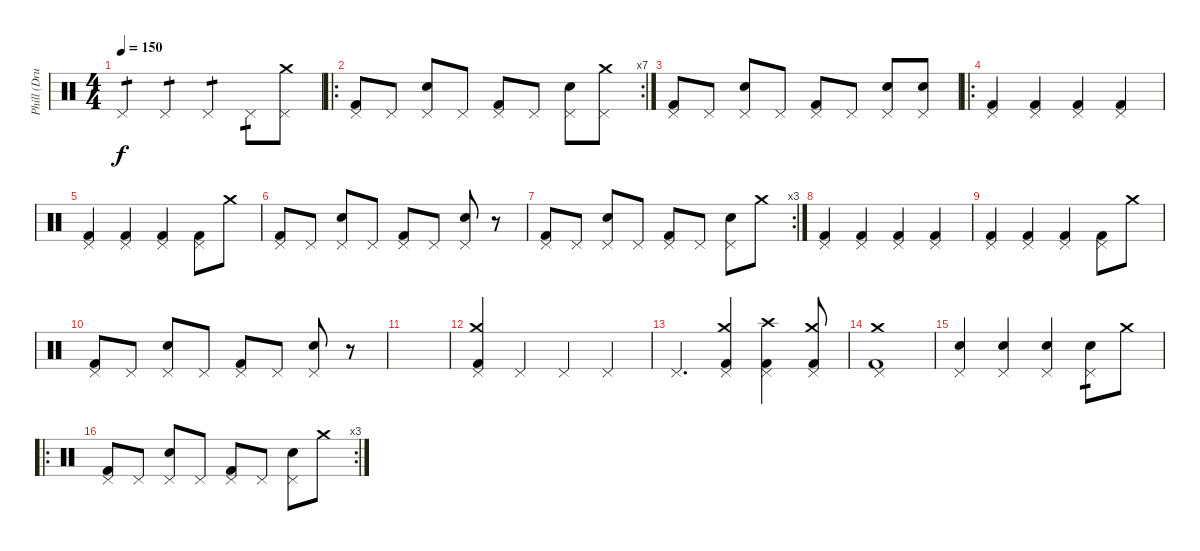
\track ("Phill (Drums)" "Phill (Dru") {instrument percussion}
\staff {score}
\articulation defaults
\ts (4 4)
\tempo 150
\clef neutral
\ks c "Pedal Hi-Hat (hit)".4{tp 1 dy f} "Pedal Hi-Hat (hit)".4{tp 1} "Pedal Hi-Hat (hit)".4{tp 1} "Pedal Hi-Hat (hit)".8{tp 1}
("Pedal Hi-Hat (hit)" "Crash medium (hit)").8 |
\ro
\rc 7
("Kick (hit) 2" "Pedal Hi-Hat (hit)").8 "Pedal Hi-Hat (hit)".8 ("Snare (hit) 2" "Pedal Hi-Hat (hit)").8 "Pedal Hi-Hat (hit)".8 ("Kick (hit) 2" "Pedal Hi-Hat (hit)").8 "Pedal Hi-Hat (hit)".8 ("Snare (hit) 2" "Pedal Hi-Hat (hit)").8 ("Pedal Hi-Hat (hit)" "Crash medium (hit)").8 |
("Kick (hit) 2" "Pedal Hi-Hat (hit)").8 "Pedal Hi-Hat (hit)".8 ("Snare (hit) 2" "Pedal Hi-Hat (hit)").8 "Pedal Hi-Hat (hit)".8 ("Kick (hit) 2" "Pedal Hi-Hat (hit)").8 "Pedal Hi-Hat (hit)".8 ("Snare (hit) 2" "Pedal Hi-Hat (hit)").8 ("Snare (hit) 2" "Pedal Hi-Hat (hit)").8 |
\ro
("Kick (hit) 2" "Pedal Hi-Hat (hit)").4 ("Kick (hit) 2" "Pedal Hi-Hat (hit)").4 ("Kick (hit) 2" "Pedal Hi-Hat (hit)").4 ("Kick (hit) 2" "Pedal Hi-Hat (hit)").4 |
("Kick (hit) 2" "Pedal Hi-Hat (hit)").4 ("Kick (hit) 2" "Pedal Hi-Hat (hit)").4 ("Kick (hit) 2" "Pedal Hi-Hat (hit)").4 ("Kick (hit) 2" "Pedal Hi-Hat (hit)").8 "Crash medium (hit)".8 |
("Kick (hit) 2" "Pedal Hi-Hat (hit)").8 "Pedal Hi-Hat (hit)".8 ("Snare (hit) 2" "Pedal Hi-Hat (hit)").8 "Pedal Hi-Hat (hit)".8 ("Kick (hit) 2" "Pedal Hi-Hat (hit)").8 "Pedal Hi-Hat (hit)".8 ("Snare (hit) 2" "Pedal Hi-Hat (hit)").8 r.8 |
\rc 3
("Kick (hit) 2" "Pedal Hi-Hat (hit)").8 "Pedal Hi-Hat (hit)".8 ("Snare (hit) 2" "Pedal Hi-Hat (hit)").8 "Pedal Hi-Hat (hit)".8 ("Kick (hit) 2" "Pedal Hi-Hat (hit)").8 "Pedal Hi-Hat (hit)".8 ("Snare (hit) 2" "Pedal Hi-Hat (hit)").8 "Crash medium (hit)".8 |
("Kick (hit) 2" "Pedal Hi-Hat (hit)").4 ("Kick (hit) 2" "Pedal Hi-Hat (hit)").4 ("Kick (hit) 2" "Pedal Hi-Hat (hit)").4 ("Kick (hit) 2" "Pedal Hi-Hat (hit)").4 |
("Kick (hit) 2" "Pedal Hi-Hat (hit)").4 ("Kick (hit) 2" "Pedal Hi-Hat (hit)").4 ("Kick (hit) 2" "Pedal Hi-Hat (hit)").4 ("Kick (hit) 2" "Pedal Hi-Hat (hit)").8 "Crash medium (hit)".8 |
("Kick (hit) 2" "Pedal Hi-Hat (hit)").8 "Pedal Hi-Hat (hit)".8 ("Snare (hit) 2" "Pedal Hi-Hat (hit)").8 "Pedal Hi-Hat (hit)".8 ("Kick (hit) 2" "Pedal Hi-Hat (hit)").8 "Pedal Hi-Hat (hit)".8 ("Snare (hit) 2" "Pedal Hi-Hat (hit)").8 r.8 |
|
("Kick (hit) 2" "Crash medium (hit)" "Pedal Hi-Hat (hit)").4 "Pedal Hi-Hat (hit)".4 "Pedal Hi-Hat (hit)".4 "Pedal Hi-Hat (hit)".4 |
"Pedal Hi-Hat (hit)".4{d} ("Kick (hit) 2" "Crash medium (hit)" "Pedal Hi-Hat (hit)").4 ("Kick (hit) 2" "Crash high (hit)" "Pedal Hi-Hat (hit)").4 ("Kick (hit) 2" "Crash medium (hit)" "Pedal Hi-Hat (hit)").8 |
("Kick (hit) 2" "Crash medium (hit)" "Pedal Hi-Hat (hit)").1 |
("Snare (hit) 2" "Pedal Hi-Hat (hit)").4 ("Snare (hit) 2" "Pedal Hi-Hat (hit)").4 ("Snare (hit) 2" "Pedal Hi-Hat (hit)").4 ("Snare (hit) 2" "Pedal Hi-Hat (hit)").8{tp 1} "Crash medium (hit)".8 |
\ro
\rc 3
("Kick (hit) 2" "Pedal Hi-Hat (hit)").8 "Pedal Hi-Hat (hit)".8 ("Snare (hit) 2" "Pedal Hi-Hat (hit)").8 "Pedal Hi-Hat (hit)".8 ("Kick (hit) 2" "Pedal Hi-Hat (hit)").8 "Pedal Hi-Hat (hit)".8 ("Snare (hit) 2" "Pedal Hi-Hat (hit)").8 "Crash medium (hit)".8
